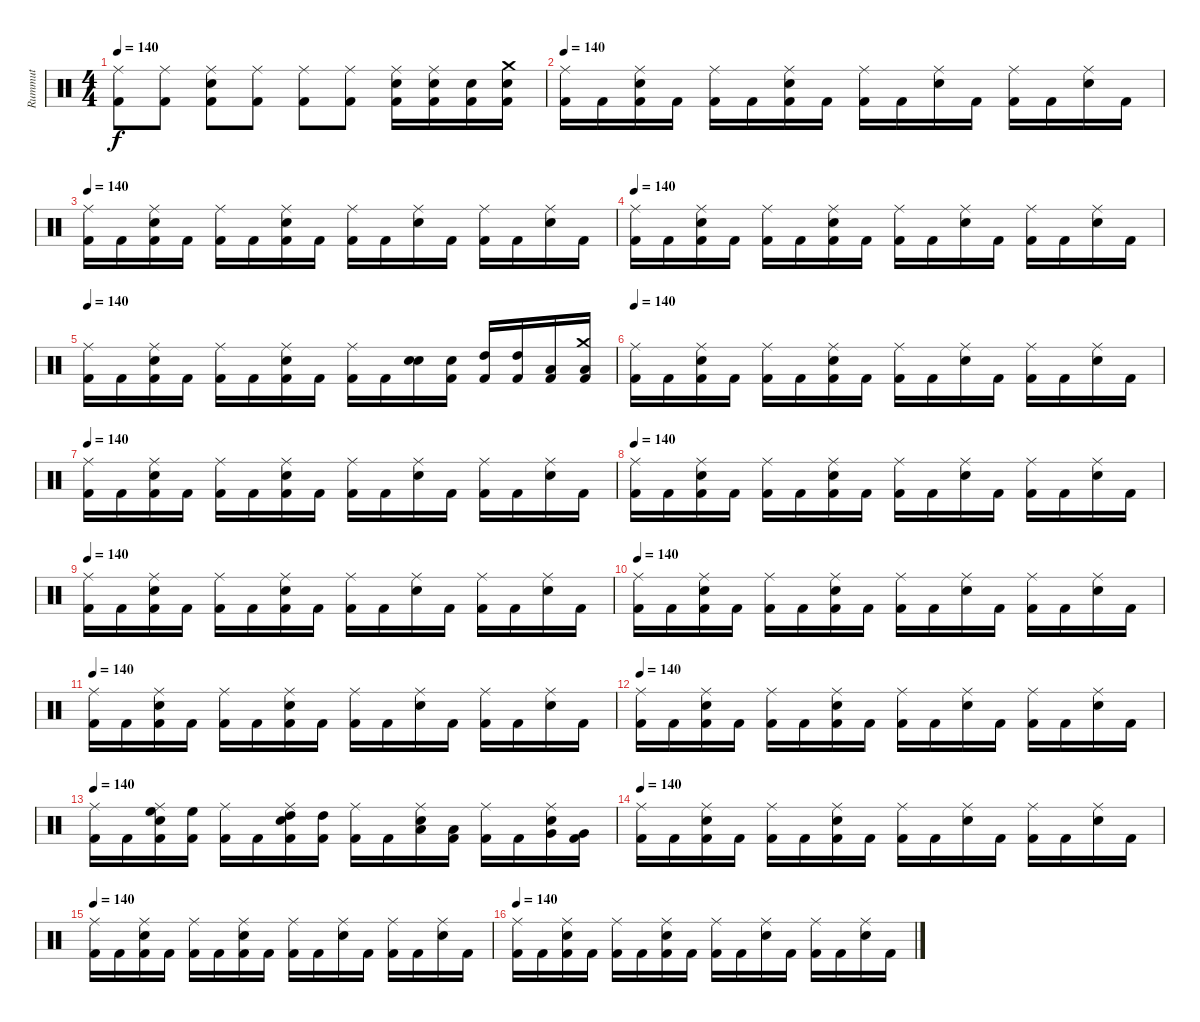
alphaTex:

\track ("Rummut" "Rummut") {instrument percussion}
\staff {score}
\articulation defaults
\ts (4 4)
\tempo 140
\clef neutral
\ks c
("Ride (middle)" "Kick (hit) 2").8{dy f} ("Ride (middle)" "Kick (hit) 2").8 ("Ride (middle)" "Snare (hit) 2" "Kick (hit) 2").8 ("Ride (middle)" "Kick (hit) 2").8 ("Ride (middle)" "Kick (hit) 2").8 ("Ride (middle)" "Kick (hit) 2").8 ("Ride (middle)" "Snare (hit) 2" "Kick (hit) 2").16 ("Ride (middle)" "Snare (hit) 2" "Kick (hit) 2").16 ("Snare (hit) 2" "Kick (hit) 2").16 ("Crash medium (hit)" "Snare (hit) 2" "Kick (hit) 2").16 |
\tempo 140
("Ride (middle)" "Kick (hit) 2").16 "Kick (hit) 2".16 ("Ride (middle)" "Snare (hit) 2" "Kick (hit) 2").16 "Kick (hit) 2".16 ("Ride (middle)" "Kick (hit) 2").16 "Kick (hit) 2".16 ("Ride (middle)" "Snare (hit) 2" "Kick (hit) 2").16 "Kick (hit) 2".16 ("Ride (middle)" "Kick (hit) 2").16 "Kick (hit) 2".16 ("Ride (middle)" "Snare (hit) 2").16 "Kick (hit) 2".16 ("Ride (middle)" "Kick (hit) 2").16 "Kick (hit) 2".16 ("Ride (middle)" "Snare (hit) 2").16 "Kick (hit) 2".16 |
\tempo 140
("Ride (middle)" "Kick (hit) 2").16 "Kick (hit) 2".16 ("Ride (middle)" "Snare (hit) 2" "Kick (hit) 2").16 "Kick (hit) 2".16 ("Ride (middle)" "Kick (hit) 2").16 "Kick (hit) 2".16 ("Ride (middle)" "Snare (hit) 2" "Kick (hit) 2").16 "Kick (hit) 2".16 ("Ride (middle)" "Kick (hit) 2").16 "Kick (hit) 2".16 ("Ride (middle)" "Snare (hit) 2").16 "Kick (hit) 2".16 ("Ride (middle)" "Kick (hit) 2").16 "Kick (hit) 2".16 ("Ride (middle)" "Snare (hit) 2").16 "Kick (hit) 2".16 |
\tempo 140
("Ride (middle)" "Kick (hit) 2").16 "Kick (hit) 2".16 ("Ride (middle)" "Snare (hit) 2" "Kick (hit) 2").16 "Kick (hit) 2".16 ("Ride (middle)" "Kick (hit) 2").16 "Kick (hit) 2".16 ("Ride (middle)" "Snare (hit) 2" "Kick (hit) 2").16 "Kick (hit) 2".16 ("Ride (middle)" "Kick (hit) 2").16 "Kick (hit) 2".16 ("Ride (middle)" "Snare (hit) 2").16 "Kick (hit) 2".16 ("Ride (middle)" "Kick (hit) 2").16 "Kick (hit) 2".16 ("Ride (middle)" "Snare (hit) 2").16 "Kick (hit) 2".16 |
\tempo 140
("Ride (middle)" "Kick (hit) 2").16 "Kick (hit) 2".16 ("Ride (middle)" "Snare (hit) 2" "Kick (hit) 2").16 "Kick (hit) 2".16 ("Ride (middle)" "Kick (hit) 2").16 "Kick (hit) 2".16 ("Ride (middle)" "Snare (hit) 2" "Kick (hit) 2").16 "Kick (hit) 2".16 ("Ride (middle)" "Kick (hit) 2").16 "Kick (hit) 2".16 ("Snare (hit) 2" "Snare (hit) 2").16 ("Snare (hit) 2" "Kick (hit) 2").16 ("High Tom (hit)" "Kick (hit) 2").16 ("High Tom (hit)" "Kick (hit) 2").16 ("Low Tom (hit)" "Kick (hit) 2").16 ("Low Tom (hit)" "Kick (hit) 2" "Crash medium (hit)").16 |
\tempo 140
("Ride (middle)" "Kick (hit) 2").16 "Kick (hit) 2".16 ("Ride (middle)" "Snare (hit) 2" "Kick (hit) 2").16 "Kick (hit) 2".16 ("Ride (middle)" "Kick (hit) 2").16 "Kick (hit) 2".16 ("Ride (middle)" "Snare (hit) 2" "Kick (hit) 2").16 "Kick (hit) 2".16 ("Ride (middle)" "Kick (hit) 2").16 "Kick (hit) 2".16 ("Ride (middle)" "Snare (hit) 2").16 "Kick (hit) 2".16 ("Ride (middle)" "Kick (hit) 2").16 "Kick (hit) 2".16 ("Ride (middle)" "Snare (hit) 2").16 "Kick (hit) 2".16 |
\tempo 140
("Ride (middle)" "Kick (hit) 2").16 "Kick (hit) 2".16 ("Ride (middle)" "Snare (hit) 2" "Kick (hit) 2").16 "Kick (hit) 2".16 ("Ride (middle)" "Kick (hit) 2").16 "Kick (hit) 2".16 ("Ride (middle)" "Snare (hit) 2" "Kick (hit) 2").16 "Kick (hit) 2".16 ("Ride (middle)" "Kick (hit) 2").16 "Kick (hit) 2".16 ("Ride (middle)" "Snare (hit) 2").16 "Kick (hit) 2".16 ("Ride (middle)" "Kick (hit) 2").16 "Kick (hit) 2".16 ("Ride (middle)" "Snare (hit) 2").16 "Kick (hit) 2".16 |
\tempo 140
("Ride (middle)" "Kick (hit) 2").16 "Kick (hit) 2".16 ("Ride (middle)" "Snare (hit) 2" "Kick (hit) 2").16 "Kick (hit) 2".16 ("Ride (middle)" "Kick (hit) 2").16 "Kick (hit) 2".16 ("Ride (middle)" "Snare (hit) 2" "Kick (hit) 2").16 "Kick (hit) 2".16 ("Ride (middle)" "Kick (hit) 2").16 "Kick (hit) 2".16 ("Ride (middle)" "Snare (hit) 2").16 "Kick (hit) 2".16 ("Ride (middle)" "Kick (hit) 2").16 "Kick (hit) 2".16 ("Ride (middle)" "Snare (hit) 2").16 "Kick (hit) 2".16 |
\tempo 140
("Ride (middle)" "Kick (hit) 2").16 "Kick (hit) 2".16 ("Ride (middle)" "Snare (hit) 2" "Kick (hit) 2").16 "Kick (hit) 2".16 ("Ride (middle)" "Kick (hit) 2").16 "Kick (hit) 2".16 ("Ride (middle)" "Snare (hit) 2" "Kick (hit) 2").16 "Kick (hit) 2".16 ("Ride (middle)" "Kick (hit) 2").16 "Kick (hit) 2".16 ("Ride (middle)" "Snare (hit) 2").16 "Kick (hit) 2".16 ("Ride (middle)" "Kick (hit) 2").16 "Kick (hit) 2".16 ("Ride (middle)" "Snare (hit) 2").16 "Kick (hit) 2".16 |
\tempo 140
("Ride (middle)" "Kick (hit) 2").16 "Kick (hit) 2".16 ("Ride (middle)" "Snare (hit) 2" "Kick (hit) 2").16 "Kick (hit) 2".16 ("Ride (middle)" "Kick (hit) 2").16 "Kick (hit) 2".16 ("Ride (middle)" "Snare (hit) 2" "Kick (hit) 2").16 "Kick (hit) 2".16 ("Ride (middle)" "Kick (hit) 2").16 "Kick (hit) 2".16 ("Ride (middle)" "Snare (hit) 2").16 "Kick (hit) 2".16 ("Ride (middle)" "Kick (hit) 2").16 "Kick (hit) 2".16 ("Ride (middle)" "Snare (hit) 2").16 "Kick (hit) 2".16 |
\tempo 140
("Ride (middle)" "Kick (hit) 2").16 "Kick (hit) 2".16 ("Ride (middle)" "Snare (hit) 2" "Kick (hit) 2").16 "Kick (hit) 2".16 ("Ride (middle)" "Kick (hit) 2").16 "Kick (hit) 2".16 ("Ride (middle)" "Snare (hit) 2" "Kick (hit) 2").16 "Kick (hit) 2".16 ("Ride (middle)" "Kick (hit) 2").16 "Kick (hit) 2".16 ("Ride (middle)" "Snare (hit) 2").16 "Kick (hit) 2".16 ("Ride (middle)" "Kick (hit) 2").16 "Kick (hit) 2".16 ("Ride (middle)" "Snare (hit) 2").16 "Kick (hit) 2".16 |
\tempo 140
("Ride (middle)" "Kick (hit) 2").16 "Kick (hit) 2".16 ("Ride (middle)" "Snare (hit) 2" "Kick (hit) 2").16 "Kick (hit) 2".16 ("Ride (middle)" "Kick (hit) 2").16 "Kick (hit) 2".16 ("Ride (middle)" "Snare (hit) 2" "Kick (hit) 2").16 "Kick (hit) 2".16 ("Ride (middle)" "Kick (hit) 2").16 "Kick (hit) 2".16 ("Ride (middle)" "Snare (hit) 2").16 "Kick (hit) 2".16 ("Ride (middle)" "Kick (hit) 2").16 "Kick (hit) 2".16 ("Ride (middle)" "Snare (hit) 2").16 "Kick (hit) 2".16 |
\tempo 140
("Ride (middle)" "Kick (hit) 2").16 "Kick (hit) 2".16 ("Ride (middle)" "Snare (hit) 2" "Kick (hit) 2" "High Floor Tom (hit)").16 ("Kick (hit) 2" "High Floor Tom (hit)").16 ("Ride (middle)" "Kick (hit) 2").16 "Kick (hit) 2".16 ("Ride (middle)" "Snare (hit) 2" "Kick (hit) 2" "High Tom (hit)").16 ("Kick (hit) 2" "High Tom (hit)").16 ("Ride (middle)" "Kick (hit) 2").16 "Kick (hit) 2".16 ("Ride (middle)" "Snare (hit) 2" "Low Tom (hit)").16 ("Kick (hit) 2" "Low Tom (hit)").16 ("Ride (middle)" "Kick (hit) 2").16 "Kick (hit) 2".16 ("Ride (middle)" "Snare (hit) 2" "Very Low Tom (hit)").16 ("Kick (hit) 2" "Very Low Tom (hit)").16 |
\tempo 140
("Ride (middle)" "Kick (hit) 2").16 "Kick (hit) 2".16 ("Ride (middle)" "Snare (hit) 2" "Kick (hit) 2").16 "Kick (hit) 2".16 ("Ride (middle)" "Kick (hit) 2").16 "Kick (hit) 2".16 ("Ride (middle)" "Snare (hit) 2" "Kick (hit) 2").16 "Kick (hit) 2".16 ("Ride (middle)" "Kick (hit) 2").16 "Kick (hit) 2".16 ("Ride (middle)" "Snare (hit) 2").16 "Kick (hit) 2".16 ("Ride (middle)" "Kick (hit) 2").16 "Kick (hit) 2".16 ("Ride (middle)" "Snare (hit) 2").16 "Kick (hit) 2".16 |
\tempo 140
("Ride (middle)" "Kick (hit) 2").16 "Kick (hit) 2".16 ("Ride (middle)" "Snare (hit) 2" "Kick (hit) 2").16 "Kick (hit) 2".16 ("Ride (middle)" "Kick (hit) 2").16 "Kick (hit) 2".16 ("Ride (middle)" "Snare (hit) 2" "Kick (hit) 2").16 "Kick (hit) 2".16 ("Ride (middle)" "Kick (hit) 2").16 "Kick (hit) 2".16 ("Ride (middle)" "Snare (hit) 2").16 "Kick (hit) 2".16 ("Ride (middle)" "Kick (hit) 2").16 "Kick (hit) 2".16 ("Ride (middle)" "Snare (hit) 2").16 "Kick (hit) 2".16 |
\tempo 140
("Ride (middle)" "Kick (hit) 2").16 "Kick (hit) 2".16 ("Ride (middle)" "Snare (hit) 2" "Kick (hit) 2").16 "Kick (hit) 2".16 ("Ride (middle)" "Kick (hit) 2").16 "Kick (hit) 2".16 ("Ride (middle)" "Snare (hit) 2" "Kick (hit) 2").16 "Kick (hit) 2".16 ("Ride (middle)" "Kick (hit) 2").16 "Kick (hit) 2".16 ("Ride (middle)" "Snare (hit) 2").16 "Kick (hit) 2".16 ("Ride (middle)" "Kick (hit) 2").16 "Kick (hit) 2".16 ("Ride (middle)" "Snare (hit) 2").16 "Kick (hit) 2".16
